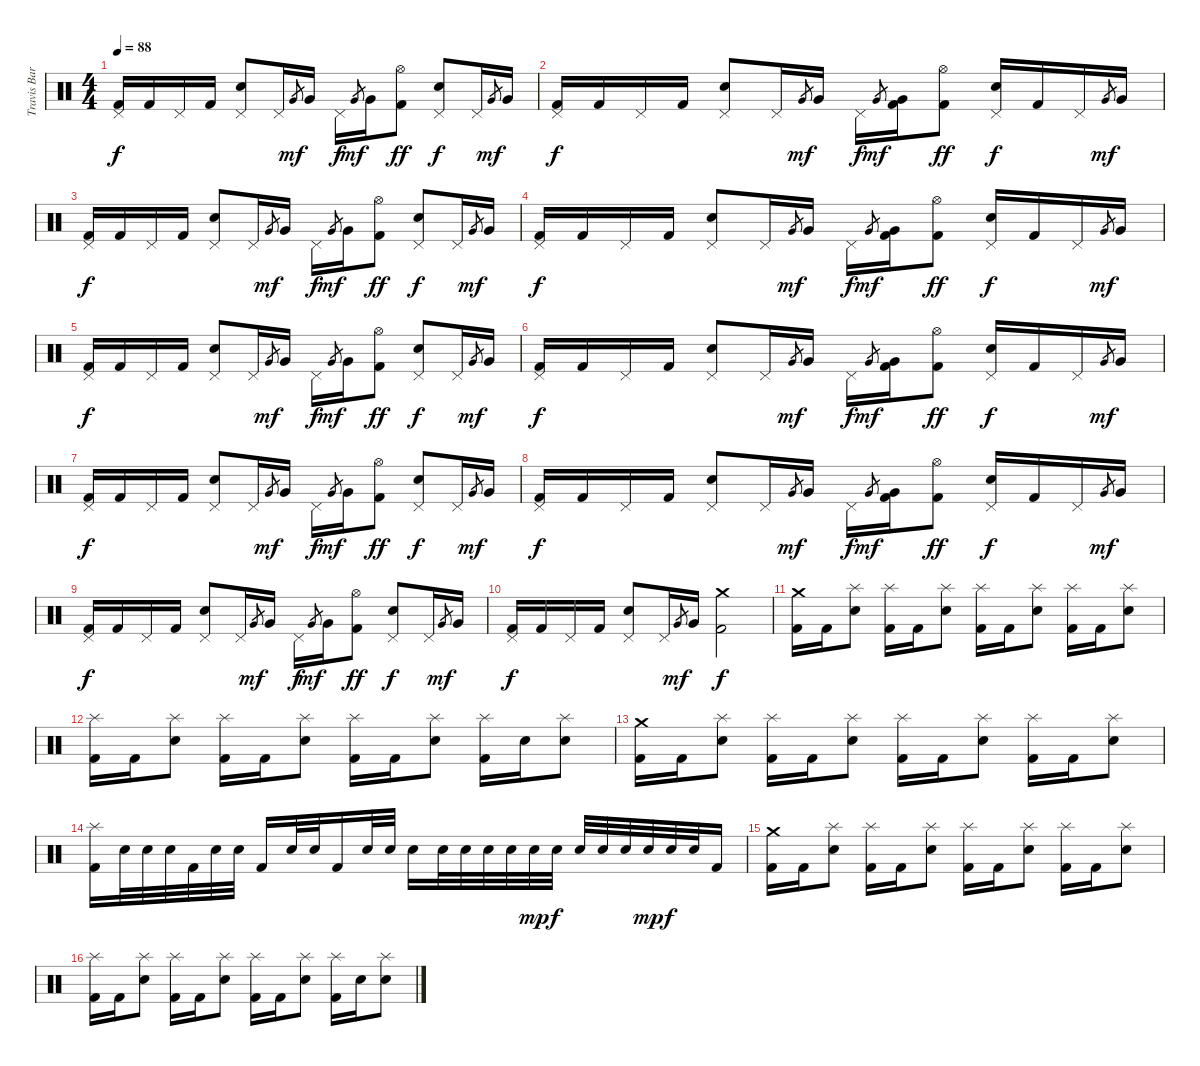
\track ("Travis Barker - Drums" "Travis Bar") {instrument percussion}
\staff {score}
\articulation defaults
\ts (4 4)
\tempo 88
\clef neutral
\ks c
("Pedal Hi-Hat (hit)" "Kick (hit) 2").16{dy f} "Kick (hit) 2".16 "Pedal Hi-Hat (hit)".16 "Kick (hit) 2".16 ("Pedal Hi-Hat (hit)" "Electric Snare (hit)").8 "Pedal Hi-Hat (hit)".16 "Very Low Tom (hit)"{sl}.8{gr dy mf} "Very Low Tom (hit)".16 "Pedal Hi-Hat (hit)".16{dy f} "Very Low Tom (hit)"{sl}.8{gr dy mf} "Very Low Tom (hit)".16 ("Hi-Hat (open)" "Kick (hit) 2").8{dy ff} ("Pedal Hi-Hat (hit)" "Electric Snare (hit)").8{dy f} "Pedal Hi-Hat (hit)".16 "Very Low Tom (hit)"{sl}.8{gr dy mf} "Very Low Tom (hit)".16 |
("Pedal Hi-Hat (hit)" "Kick (hit) 2").16{dy f} "Kick (hit) 2".16 "Pedal Hi-Hat (hit)".16 "Kick (hit) 2".16 ("Pedal Hi-Hat (hit)" "Electric Snare (hit)").8 "Pedal Hi-Hat (hit)".16 "Very Low Tom (hit)"{sl}.8{gr dy mf} "Very Low Tom (hit)".16 "Pedal Hi-Hat (hit)".16{dy f} "Very Low Tom (hit)"{sl}.8{gr dy mf} ("Very Low Tom (hit)" "Kick (hit) 2").16 ("Hi-Hat (open)" "Kick (hit) 2").8{dy ff} ("Pedal Hi-Hat (hit)" "Electric Snare (hit)").16{dy f} "Kick (hit) 2".16 "Pedal Hi-Hat (hit)".16 "Very Low Tom (hit)"{sl}.8{gr dy mf} "Very Low Tom (hit)".16 |
("Pedal Hi-Hat (hit)" "Kick (hit) 2").16{dy f} "Kick (hit) 2".16 "Pedal Hi-Hat (hit)".16 "Kick (hit) 2".16 ("Pedal Hi-Hat (hit)" "Electric Snare (hit)").8 "Pedal Hi-Hat (hit)".16 "Very Low Tom (hit)"{sl}.8{gr dy mf} "Very Low Tom (hit)".16 "Pedal Hi-Hat (hit)".16{dy f} "Very Low Tom (hit)"{sl}.8{gr dy mf} "Very Low Tom (hit)".16 ("Hi-Hat (open)" "Kick (hit) 2").8{dy ff} ("Pedal Hi-Hat (hit)" "Electric Snare (hit)").8{dy f} "Pedal Hi-Hat (hit)".16 "Very Low Tom (hit)"{sl}.8{gr dy mf} "Very Low Tom (hit)".16 |
("Pedal Hi-Hat (hit)" "Kick (hit) 2").16{dy f} "Kick (hit) 2".16 "Pedal Hi-Hat (hit)".16 "Kick (hit) 2".16 ("Pedal Hi-Hat (hit)" "Electric Snare (hit)").8 "Pedal Hi-Hat (hit)".16 "Very Low Tom (hit)"{sl}.8{gr dy mf} "Very Low Tom (hit)".16 "Pedal Hi-Hat (hit)".16{dy f} "Very Low Tom (hit)"{sl}.8{gr dy mf} ("Very Low Tom (hit)" "Kick (hit) 2").16 ("Hi-Hat (open)" "Kick (hit) 2").8{dy ff} ("Pedal Hi-Hat (hit)" "Electric Snare (hit)").16{dy f} "Kick (hit) 2".16 "Pedal Hi-Hat (hit)".16 "Very Low Tom (hit)"{sl}.8{gr dy mf} "Very Low Tom (hit)".16 |
("Pedal Hi-Hat (hit)" "Kick (hit) 2").16{dy f} "Kick (hit) 2".16 "Pedal Hi-Hat (hit)".16 "Kick (hit) 2".16 ("Pedal Hi-Hat (hit)" "Electric Snare (hit)").8 "Pedal Hi-Hat (hit)".16 "Very Low Tom (hit)"{sl}.8{gr dy mf} "Very Low Tom (hit)".16 "Pedal Hi-Hat (hit)".16{dy f} "Very Low Tom (hit)"{sl}.8{gr dy mf} "Very Low Tom (hit)".16 ("Hi-Hat (open)" "Kick (hit) 2").8{dy ff} ("Pedal Hi-Hat (hit)" "Electric Snare (hit)").8{dy f} "Pedal Hi-Hat (hit)".16 "Very Low Tom (hit)"{sl}.8{gr dy mf} "Very Low Tom (hit)".16 |
("Pedal Hi-Hat (hit)" "Kick (hit) 2").16{dy f} "Kick (hit) 2".16 "Pedal Hi-Hat (hit)".16 "Kick (hit) 2".16 ("Pedal Hi-Hat (hit)" "Electric Snare (hit)").8 "Pedal Hi-Hat (hit)".16 "Very Low Tom (hit)"{sl}.8{gr dy mf} "Very Low Tom (hit)".16 "Pedal Hi-Hat (hit)".16{dy f} "Very Low Tom (hit)"{sl}.8{gr dy mf} ("Very Low Tom (hit)" "Kick (hit) 2").16 ("Hi-Hat (open)" "Kick (hit) 2").8{dy ff} ("Pedal Hi-Hat (hit)" "Electric Snare (hit)").16{dy f} "Kick (hit) 2".16 "Pedal Hi-Hat (hit)".16 "Very Low Tom (hit)"{sl}.8{gr dy mf} "Very Low Tom (hit)".16 |
("Pedal Hi-Hat (hit)" "Kick (hit) 2").16{dy f} "Kick (hit) 2".16 "Pedal Hi-Hat (hit)".16 "Kick (hit) 2".16 ("Pedal Hi-Hat (hit)" "Electric Snare (hit)").8 "Pedal Hi-Hat (hit)".16 "Very Low Tom (hit)"{sl}.8{gr dy mf} "Very Low Tom (hit)".16 "Pedal Hi-Hat (hit)".16{dy f} "Very Low Tom (hit)"{sl}.8{gr dy mf} "Very Low Tom (hit)".16 ("Hi-Hat (open)" "Kick (hit) 2").8{dy ff} ("Pedal Hi-Hat (hit)" "Electric Snare (hit)").8{dy f} "Pedal Hi-Hat (hit)".16 "Very Low Tom (hit)"{sl}.8{gr dy mf} "Very Low Tom (hit)".16 |
("Pedal Hi-Hat (hit)" "Kick (hit) 2").16{dy f} "Kick (hit) 2".16 "Pedal Hi-Hat (hit)".16 "Kick (hit) 2".16 ("Pedal Hi-Hat (hit)" "Electric Snare (hit)").8 "Pedal Hi-Hat (hit)".16 "Very Low Tom (hit)"{sl}.8{gr dy mf} "Very Low Tom (hit)".16 "Pedal Hi-Hat (hit)".16{dy f} "Very Low Tom (hit)"{sl}.8{gr dy mf} ("Very Low Tom (hit)" "Kick (hit) 2").16 ("Hi-Hat (open)" "Kick (hit) 2").8{dy ff} ("Pedal Hi-Hat (hit)" "Electric Snare (hit)").16{dy f} "Kick (hit) 2".16 "Pedal Hi-Hat (hit)".16 "Very Low Tom (hit)"{sl}.8{gr dy mf} "Very Low Tom (hit)".16 |
("Pedal Hi-Hat (hit)" "Kick (hit) 2").16{dy f} "Kick (hit) 2".16 "Pedal Hi-Hat (hit)".16 "Kick (hit) 2".16 ("Pedal Hi-Hat (hit)" "Electric Snare (hit)").8 "Pedal Hi-Hat (hit)".16 "Very Low Tom (hit)"{sl}.8{gr dy mf} "Very Low Tom (hit)".16 "Pedal Hi-Hat (hit)".16{dy f} "Very Low Tom (hit)"{sl}.8{gr dy mf} "Very Low Tom (hit)".16 ("Hi-Hat (open)" "Kick (hit) 2").8{dy ff} ("Pedal Hi-Hat (hit)" "Electric Snare (hit)").8{dy f} "Pedal Hi-Hat (hit)".16 "Very Low Tom (hit)"{sl}.8{gr dy mf} "Very Low Tom (hit)".16 |
("Pedal Hi-Hat (hit)" "Kick (hit) 2").16{dy f} "Kick (hit) 2".16 "Pedal Hi-Hat (hit)".16 "Kick (hit) 2".16 ("Pedal Hi-Hat (hit)" "Electric Snare (hit)").8 "Pedal Hi-Hat (hit)".16 "Very Low Tom (hit)"{sl}.8{gr dy mf} "Very Low Tom (hit)".16 ("Crash medium (hit)" "Kick (hit) 2").2{dy f} |
("Crash medium (hit)" "Kick (hit) 2").16 "Kick (hit) 2".16 ("Splash (hit)" "Electric Snare (hit)").8 ("Splash (hit)" "Kick (hit) 2").16 "Kick (hit) 2".16 ("Splash (hit)" "Electric Snare (hit)").8 ("Splash (hit)" "Kick (hit) 2").16 "Kick (hit) 2".16 ("Splash (hit)" "Electric Snare (hit)").8 ("Splash (hit)" "Kick (hit) 2").16 "Kick (hit) 2".16 ("Splash (hit)" "Electric Snare (hit)").8 |
("Splash (hit)" "Kick (hit) 2").16 "Kick (hit) 2".16 ("Splash (hit)" "Electric Snare (hit)").8 ("Splash (hit)" "Kick (hit) 2").16 "Kick (hit) 2".16 ("Splash (hit)" "Electric Snare (hit)").8 ("Splash (hit)" "Kick (hit) 2").16 "Kick (hit) 2".16 ("Splash (hit)" "Electric Snare (hit)").8 ("Splash (hit)" "Kick (hit) 2").16 "Electric Snare (hit)".16 ("Splash (hit)" "Electric Snare (hit)").8 |
("Crash medium (hit)" "Kick (hit) 2").16 "Kick (hit) 2".16 ("Splash (hit)" "Electric Snare (hit)").8 ("Splash (hit)" "Kick (hit) 2").16 "Kick (hit) 2".16 ("Splash (hit)" "Electric Snare (hit)").8 ("Splash (hit)" "Kick (hit) 2").16 "Kick (hit) 2".16 ("Splash (hit)" "Electric Snare (hit)").8 ("Splash (hit)" "Kick (hit) 2").16 "Kick (hit) 2".16 ("Splash (hit)" "Electric Snare (hit)").8 |
("Splash (hit)" "Kick (hit) 2").16 "Electric Snare (hit)".32 "Electric Snare (hit)".32 "Electric Snare (hit)".32 "Kick (hit) 2".32 "Electric Snare (hit)".32 "Electric Snare (hit)".32 "Kick (hit) 2".16 "Electric Snare (hit)".32 "Electric Snare (hit)".32 "Kick (hit) 2".16 "Electric Snare (hit)".32 "Electric Snare (hit)".32 "Electric Snare (hit)".16 "Electric Snare (hit)".32 "Electric Snare (hit)".32 "Electric Snare (hit)".32 "Electric Snare (hit)".32 "Electric Snare (hit)".32{dy mp} "Electric Snare (hit)".32{dy f} "Electric Snare (hit)".32 "Electric Snare (hit)".32 "Electric Snare (hit)".32 "Electric Snare (hit)".32{dy mp} "Electric Snare (hit)".32{dy f} "Electric Snare (hit)".32 "Kick (hit) 2".16 |
("Crash medium (hit)" "Kick (hit) 2").16 "Kick (hit) 2".16 ("Splash (hit)" "Electric Snare (hit)").8 ("Splash (hit)" "Kick (hit) 2").16 "Kick (hit) 2".16 ("Splash (hit)" "Electric Snare (hit)").8 ("Splash (hit)" "Kick (hit) 2").16 "Kick (hit) 2".16 ("Splash (hit)" "Electric Snare (hit)").8 ("Splash (hit)" "Kick (hit) 2").16 "Kick (hit) 2".16 ("Splash (hit)" "Electric Snare (hit)").8 |
("Splash (hit)" "Kick (hit) 2").16 "Kick (hit) 2".16 ("Splash (hit)" "Electric Snare (hit)").8 ("Splash (hit)" "Kick (hit) 2").16 "Kick (hit) 2".16 ("Splash (hit)" "Electric Snare (hit)").8 ("Splash (hit)" "Kick (hit) 2").16 "Kick (hit) 2".16 ("Splash (hit)" "Electric Snare (hit)").8 ("Splash (hit)" "Kick (hit) 2").16 "Electric Snare (hit)".16 ("Splash (hit)" "Electric Snare (hit)").8
